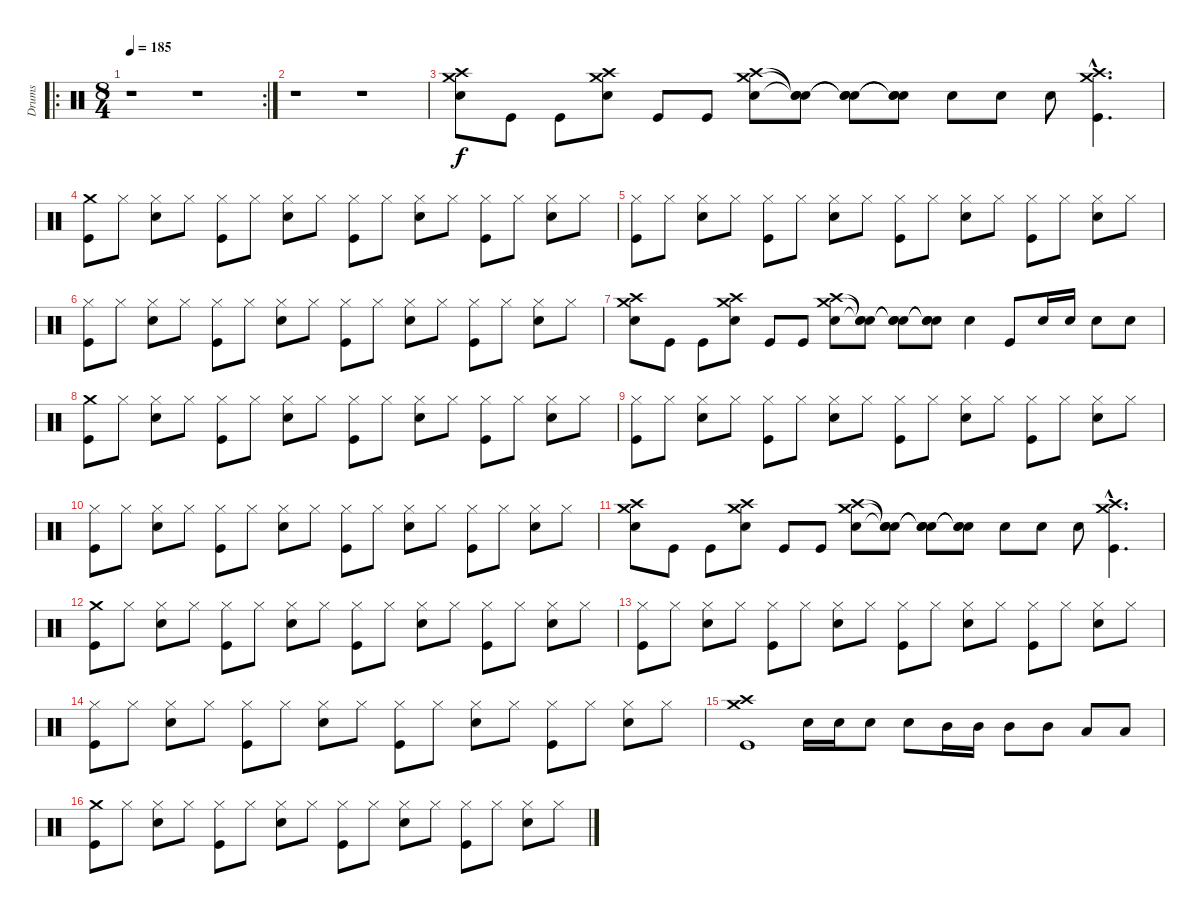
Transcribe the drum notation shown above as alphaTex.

\track ("Drums" "Drums") {instrument percussion}
\staff {score}
\articulation defaults
\ro
\rc 2
\ts (8 4)
\tempo 185
\clef neutral
\ks c
r.1{dy f} r.1 |
r.1 r.1 |
("Crash medium (hit)" "Crash high (hit)" "Snare (hit) 2").8 "Kick (hit)".8 "Kick (hit)".8 ("Crash medium (hit)" "Crash high (hit)" "Snare (hit) 2").8 "Kick (hit)".8 "Kick (hit)".8 ("Crash medium (hit)" "Crash high (hit)" "Snare (hit) 2").8 ("Snare (hit)"{t} "Snare (hit)"{t} "Snare (hit)"{t}).8 ("Snare (hit)"{t} "Snare (hit)"{t} "Snare (hit)"{t}).8 ("Snare (hit)"{t} "Snare (hit)"{t} "Snare (hit)"{t}).8 "Snare (hit) 2".8 "Snare (hit) 2".8 "Snare (hit) 2".8 ("Crash medium (hit)"{hac} "Crash high (hit)"{hac} "Kick (hit)"{hac}).4{d} |
("Crash medium (hit)" "Kick (hit)").8 "Hi-Hat (closed)".8 ("Hi-Hat (closed)" "Snare (hit) 2").8 "Hi-Hat (closed)".8 ("Hi-Hat (closed)" "Kick (hit)").8 "Hi-Hat (closed)".8 ("Hi-Hat (closed)" "Snare (hit) 2").8 "Hi-Hat (closed)".8 ("Hi-Hat (closed)" "Kick (hit)").8 "Hi-Hat (closed)".8 ("Hi-Hat (closed)" "Snare (hit) 2").8 "Hi-Hat (closed)".8 ("Hi-Hat (closed)" "Kick (hit)").8 "Hi-Hat (closed)".8 ("Hi-Hat (closed)" "Snare (hit) 2").8 "Hi-Hat (closed)".8 |
("Hi-Hat (closed)" "Kick (hit)").8 "Hi-Hat (closed)".8 ("Hi-Hat (closed)" "Snare (hit) 2").8 "Hi-Hat (closed)".8 ("Hi-Hat (closed)" "Kick (hit)").8 "Hi-Hat (closed)".8 ("Hi-Hat (closed)" "Snare (hit) 2").8 "Hi-Hat (closed)".8 ("Hi-Hat (closed)" "Kick (hit)").8 "Hi-Hat (closed)".8 ("Hi-Hat (closed)" "Snare (hit) 2").8 "Hi-Hat (closed)".8 ("Hi-Hat (closed)" "Kick (hit)").8 "Hi-Hat (closed)".8 ("Hi-Hat (closed)" "Snare (hit) 2").8 "Hi-Hat (closed)".8 |
("Hi-Hat (closed)" "Kick (hit)").8 "Hi-Hat (closed)".8 ("Hi-Hat (closed)" "Snare (hit) 2").8 "Hi-Hat (closed)".8 ("Hi-Hat (closed)" "Kick (hit)").8 "Hi-Hat (closed)".8 ("Hi-Hat (closed)" "Snare (hit) 2").8 "Hi-Hat (closed)".8 ("Hi-Hat (closed)" "Kick (hit)").8 "Hi-Hat (closed)".8 ("Hi-Hat (closed)" "Snare (hit) 2").8 "Hi-Hat (closed)".8 ("Hi-Hat (closed)" "Kick (hit)").8 "Hi-Hat (closed)".8 ("Hi-Hat (closed)" "Snare (hit) 2").8 "Hi-Hat (closed)".8 |
("Crash medium (hit)" "Crash high (hit)" "Snare (hit) 2").8 "Kick (hit)".8 "Kick (hit)".8 ("Crash medium (hit)" "Crash high (hit)" "Snare (hit) 2").8 "Kick (hit)".8 "Kick (hit)".8 ("Crash medium (hit)" "Crash high (hit)" "Snare (hit) 2").8 ("Snare (hit)"{t} "Snare (hit)"{t} "Snare (hit)"{t}).8 ("Snare (hit)"{t} "Snare (hit)"{t} "Snare (hit)"{t}).8 ("Snare (hit)"{t} "Snare (hit)"{t} "Snare (hit)"{t}).8 "Snare (hit) 2".4 "Kick (hit)".8 "Snare (hit) 2".16 "Snare (hit) 2".16 "Snare (hit) 2".8 "Snare (hit) 2".8 |
("Crash medium (hit)" "Kick (hit)").8 "Hi-Hat (closed)".8 ("Hi-Hat (closed)" "Snare (hit) 2").8 "Hi-Hat (closed)".8 ("Hi-Hat (closed)" "Kick (hit)").8 "Hi-Hat (closed)".8 ("Hi-Hat (closed)" "Snare (hit) 2").8 "Hi-Hat (closed)".8 ("Hi-Hat (closed)" "Kick (hit)").8 "Hi-Hat (closed)".8 ("Hi-Hat (closed)" "Snare (hit) 2").8 "Hi-Hat (closed)".8 ("Hi-Hat (closed)" "Kick (hit)").8 "Hi-Hat (closed)".8 ("Hi-Hat (closed)" "Snare (hit) 2").8 "Hi-Hat (closed)".8 |
("Hi-Hat (closed)" "Kick (hit)").8 "Hi-Hat (closed)".8 ("Hi-Hat (closed)" "Snare (hit) 2").8 "Hi-Hat (closed)".8 ("Hi-Hat (closed)" "Kick (hit)").8 "Hi-Hat (closed)".8 ("Hi-Hat (closed)" "Snare (hit) 2").8 "Hi-Hat (closed)".8 ("Hi-Hat (closed)" "Kick (hit)").8 "Hi-Hat (closed)".8 ("Hi-Hat (closed)" "Snare (hit) 2").8 "Hi-Hat (closed)".8 ("Hi-Hat (closed)" "Kick (hit)").8 "Hi-Hat (closed)".8 ("Hi-Hat (closed)" "Snare (hit) 2").8 "Hi-Hat (closed)".8 |
("Hi-Hat (closed)" "Kick (hit)").8 "Hi-Hat (closed)".8 ("Hi-Hat (closed)" "Snare (hit) 2").8 "Hi-Hat (closed)".8 ("Hi-Hat (closed)" "Kick (hit)").8 "Hi-Hat (closed)".8 ("Hi-Hat (closed)" "Snare (hit) 2").8 "Hi-Hat (closed)".8 ("Hi-Hat (closed)" "Kick (hit)").8 "Hi-Hat (closed)".8 ("Hi-Hat (closed)" "Snare (hit) 2").8 "Hi-Hat (closed)".8 ("Hi-Hat (closed)" "Kick (hit)").8 "Hi-Hat (closed)".8 ("Hi-Hat (closed)" "Snare (hit) 2").8 "Hi-Hat (closed)".8 |
("Crash medium (hit)" "Crash high (hit)" "Snare (hit) 2").8 "Kick (hit)".8 "Kick (hit)".8 ("Crash medium (hit)" "Crash high (hit)" "Snare (hit) 2").8 "Kick (hit)".8 "Kick (hit)".8 ("Crash medium (hit)" "Crash high (hit)" "Snare (hit) 2").8 ("Snare (hit)"{t} "Snare (hit)"{t} "Snare (hit)"{t}).8 ("Snare (hit)"{t} "Snare (hit)"{t} "Snare (hit)"{t}).8 ("Snare (hit)"{t} "Snare (hit)"{t} "Snare (hit)"{t}).8 "Snare (hit) 2".8 "Snare (hit) 2".8 "Snare (hit) 2".8 ("Crash medium (hit)"{hac} "Crash high (hit)"{hac} "Kick (hit)"{hac}).4{d} |
("Crash medium (hit)" "Kick (hit)").8 "Hi-Hat (closed)".8 ("Hi-Hat (closed)" "Snare (hit) 2").8 "Hi-Hat (closed)".8 ("Hi-Hat (closed)" "Kick (hit)").8 "Hi-Hat (closed)".8 ("Hi-Hat (closed)" "Snare (hit) 2").8 "Hi-Hat (closed)".8 ("Hi-Hat (closed)" "Kick (hit)").8 "Hi-Hat (closed)".8 ("Hi-Hat (closed)" "Snare (hit) 2").8 "Hi-Hat (closed)".8 ("Hi-Hat (closed)" "Kick (hit)").8 "Hi-Hat (closed)".8 ("Hi-Hat (closed)" "Snare (hit) 2").8 "Hi-Hat (closed)".8 |
("Hi-Hat (closed)" "Kick (hit)").8 "Hi-Hat (closed)".8 ("Hi-Hat (closed)" "Snare (hit) 2").8 "Hi-Hat (closed)".8 ("Hi-Hat (closed)" "Kick (hit)").8 "Hi-Hat (closed)".8 ("Hi-Hat (closed)" "Snare (hit) 2").8 "Hi-Hat (closed)".8 ("Hi-Hat (closed)" "Kick (hit)").8 "Hi-Hat (closed)".8 ("Hi-Hat (closed)" "Snare (hit) 2").8 "Hi-Hat (closed)".8 ("Hi-Hat (closed)" "Kick (hit)").8 "Hi-Hat (closed)".8 ("Hi-Hat (closed)" "Snare (hit) 2").8 "Hi-Hat (closed)".8 |
("Hi-Hat (closed)" "Kick (hit)").8 "Hi-Hat (closed)".8 ("Hi-Hat (closed)" "Snare (hit) 2").8 "Hi-Hat (closed)".8 ("Hi-Hat (closed)" "Kick (hit)").8 "Hi-Hat (closed)".8 ("Hi-Hat (closed)" "Snare (hit) 2").8 "Hi-Hat (closed)".8 ("Hi-Hat (closed)" "Kick (hit)").8 "Hi-Hat (closed)".8 ("Hi-Hat (closed)" "Snare (hit) 2").8 "Hi-Hat (closed)".8 ("Hi-Hat (closed)" "Kick (hit)").8 "Hi-Hat (closed)".8 ("Hi-Hat (closed)" "Snare (hit) 2").8 "Hi-Hat (closed)".8 |
("Crash medium (hit)" "Crash high (hit)" "Kick (hit)").1 "Snare (hit) 2".16 "Snare (hit) 2".16 "Snare (hit) 2".8 "Snare (hit) 2".8 "Mid Tom (hit)".16 "Mid Tom (hit)".16 "Mid Tom (hit)".8 "Mid Tom (hit)".8 "Low Tom (hit)".8 "Low Tom (hit)".8 |
("Crash medium (hit)" "Kick (hit)").8 "Hi-Hat (closed)".8 ("Hi-Hat (closed)" "Snare (hit) 2").8 "Hi-Hat (closed)".8 ("Hi-Hat (closed)" "Kick (hit)").8 "Hi-Hat (closed)".8 ("Hi-Hat (closed)" "Snare (hit) 2").8 "Hi-Hat (closed)".8 ("Hi-Hat (closed)" "Kick (hit)").8 "Hi-Hat (closed)".8 ("Hi-Hat (closed)" "Snare (hit) 2").8 "Hi-Hat (closed)".8 ("Hi-Hat (closed)" "Kick (hit)").8 "Hi-Hat (closed)".8 ("Hi-Hat (closed)" "Snare (hit) 2").8 "Hi-Hat (closed)".8
